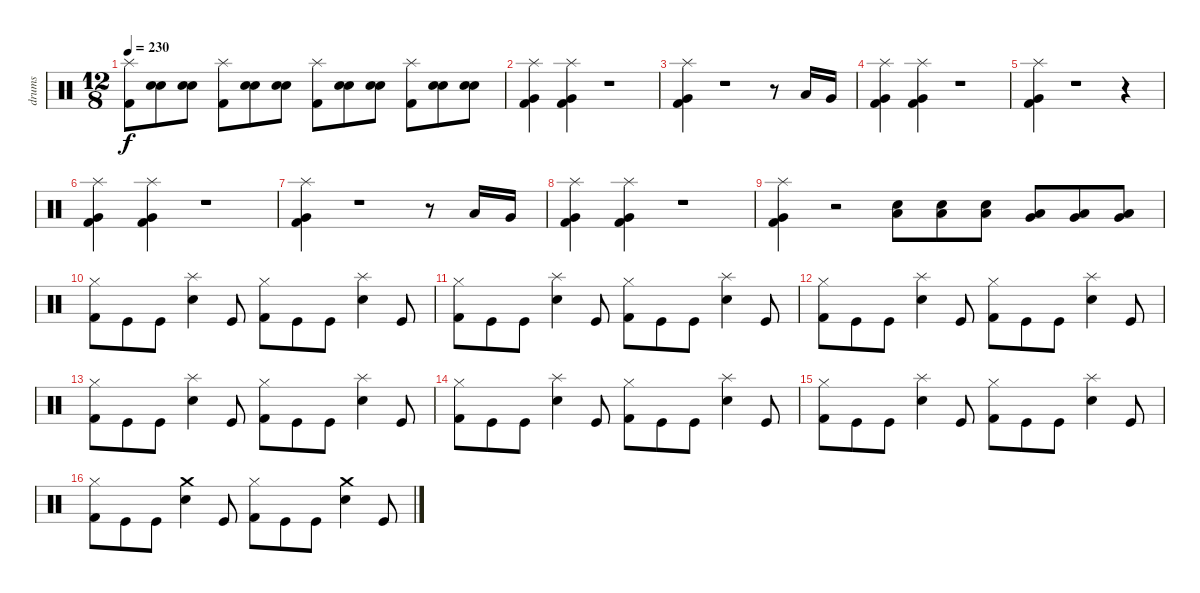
\track ("drums" "drums") {instrument percussion}
\staff {score}
\articulation defaults
\ts (12 8)
\tempo 230
\clef neutral
\ks c
("Splash (hit)" "Kick (hit) 2").8{dy f} ("Electric Snare (hit)" "Snare (hit) 2").8 ("Electric Snare (hit)" "Snare (hit) 2").8 ("Splash (hit)" "Kick (hit) 2").8 ("Electric Snare (hit)" "Snare (hit) 2").8 ("Electric Snare (hit)" "Snare (hit) 2").8 ("Splash (hit)" "Kick (hit) 2").8 ("Electric Snare (hit)" "Snare (hit) 2").8 ("Electric Snare (hit)" "Snare (hit) 2").8 ("Splash (hit)" "Kick (hit) 2").8 ("Snare (hit) 2" "Electric Snare (hit)").8 ("Snare (hit) 2" "Electric Snare (hit)").8 |
("Very Low Tom (hit)" "Splash (hit)" "Kick (hit) 2").4 ("Very Low Tom (hit)" "Splash (hit)" "Kick (hit) 2").4 r.1 |
("Splash (hit)" "Very Low Tom (hit)" "Kick (hit) 2").4 r.1 r.8 "Low Floor Tom (hit)".16 "Very Low Tom (hit)".16 |
("Splash (hit)" "Very Low Tom (hit)" "Kick (hit) 2").4 ("Very Low Tom (hit)" "Kick (hit) 2" "Splash (hit)").4 r.1 |
("Splash (hit)" "Very Low Tom (hit)" "Kick (hit) 2").4 r.1 r.4 |
("Splash (hit)" "Very Low Tom (hit)" "Kick (hit) 2").4 ("Splash (hit)" "Very Low Tom (hit)" "Kick (hit) 2").4 r.1 |
("Very Low Tom (hit)" "Splash (hit)" "Kick (hit) 2").4 r.1 r.8 "Low Floor Tom (hit)".16 "Very Low Tom (hit)".16 |
("Splash (hit)" "Very Low Tom (hit)" "Kick (hit) 2").4 ("Splash (hit)" "Very Low Tom (hit)" "Kick (hit) 2").4 r.1 |
("Splash (hit)" "Very Low Tom (hit)" "Kick (hit) 2").4 r.2 ("Low Tom (hit)" "Snare (hit) 2").8 ("Low Tom (hit)" "Snare (hit) 2").8 ("Snare (hit) 2" "Low Tom (hit)").8 ("Very Low Tom (hit)" "Low Floor Tom (hit)").8 ("Very Low Tom (hit)" "Low Floor Tom (hit)").8 ("Very Low Tom (hit)" "Low Floor Tom (hit)").8 |
("Hi-Hat (closed)" "Kick (hit) 2").8 "Kick (hit)".8 "Kick (hit)".8 ("Splash (hit)" "Snare (hit) 2").4 "Kick (hit)".8 ("Hi-Hat (closed)" "Kick (hit) 2").8 "Kick (hit)".8 "Kick (hit)".8 ("Splash (hit)" "Snare (hit) 2").4 "Kick (hit)".8 |
("Hi-Hat (closed)" "Kick (hit) 2").8 "Kick (hit)".8 "Kick (hit)".8 ("Splash (hit)" "Snare (hit) 2").4 "Kick (hit)".8 ("Hi-Hat (closed)" "Kick (hit) 2").8 "Kick (hit)".8 "Kick (hit)".8 ("Splash (hit)" "Snare (hit) 2").4 "Kick (hit)".8 |
("Hi-Hat (closed)" "Kick (hit) 2").8 "Kick (hit)".8 "Kick (hit)".8 ("Splash (hit)" "Snare (hit) 2").4 "Kick (hit)".8 ("Hi-Hat (closed)" "Kick (hit) 2").8 "Kick (hit)".8 "Kick (hit)".8 ("Splash (hit)" "Snare (hit) 2").4 "Kick (hit)".8 |
("Hi-Hat (closed)" "Kick (hit) 2").8 "Kick (hit)".8 "Kick (hit)".8 ("Splash (hit)" "Snare (hit) 2").4 "Kick (hit)".8 ("Hi-Hat (closed)" "Kick (hit) 2").8 "Kick (hit)".8 "Kick (hit)".8 ("Splash (hit)" "Snare (hit) 2").4 "Kick (hit)".8 |
("Hi-Hat (closed)" "Kick (hit) 2").8 "Kick (hit)".8 "Kick (hit)".8 ("Splash (hit)" "Snare (hit) 2").4 "Kick (hit)".8 ("Hi-Hat (closed)" "Kick (hit) 2").8 "Kick (hit)".8 "Kick (hit)".8 ("Splash (hit)" "Snare (hit) 2").4 "Kick (hit)".8 |
("Hi-Hat (closed)" "Kick (hit) 2").8 "Kick (hit)".8 "Kick (hit)".8 ("Splash (hit)" "Snare (hit) 2").4 "Kick (hit)".8 ("Hi-Hat (closed)" "Kick (hit) 2").8 "Kick (hit)".8 "Kick (hit)".8 ("Splash (hit)" "Snare (hit) 2").4 "Kick (hit)".8 |
("Hi-Hat (closed)" "Kick (hit) 2").8 "Kick (hit)".8 "Kick (hit)".8 ("Crash medium (hit)" "Snare (hit) 2").4 "Kick (hit)".8 ("Hi-Hat (closed)" "Kick (hit) 2").8 "Kick (hit)".8 "Kick (hit)".8 ("Crash medium (hit)" "Snare (hit) 2").4 "Kick (hit)".8
